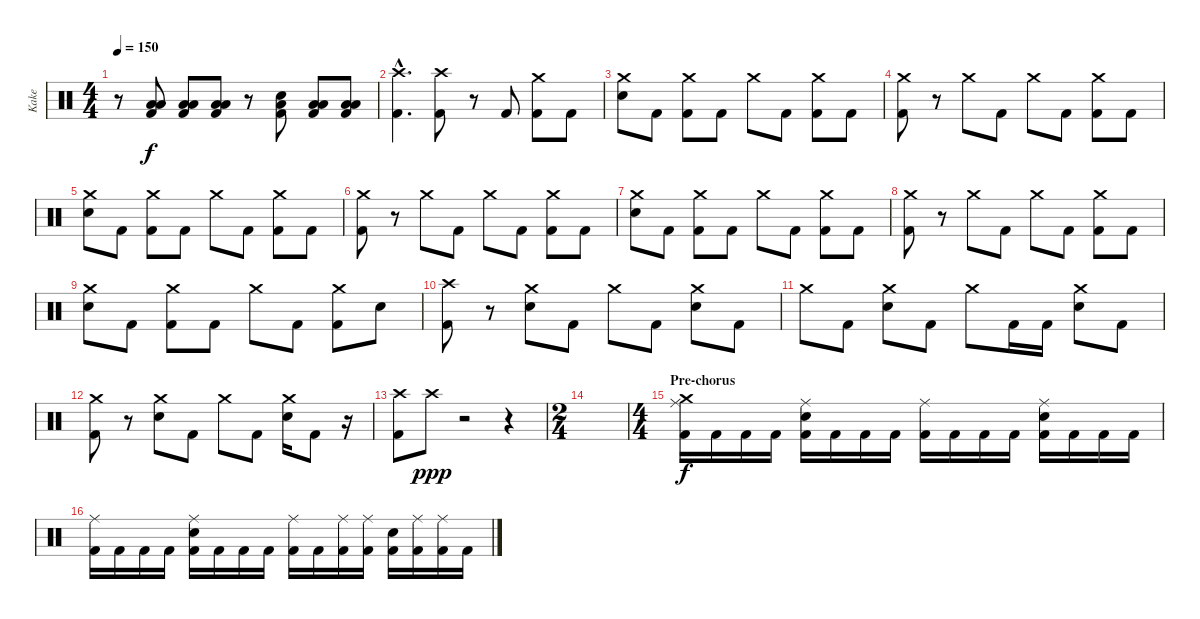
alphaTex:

\track ("Kake" "Kake") {instrument percussion}
\staff {score}
\articulation defaults
\ts (4 4)
\tempo 150
\clef neutral
\ks c
r.8{dy fff} ("Low Tom (hit)" "Low Floor Tom (hit)" "Kick (hit) 2").8{dy f} ("Low Tom (hit)" "Low Floor Tom (hit)" "Kick (hit) 2").8 ("Low Tom (hit)" "Low Floor Tom (hit)" "Kick (hit) 2").8 r.8 ("Electric Snare (hit)" "Low Floor Tom (hit)" "Kick (hit) 2").8 ("Low Tom (hit)" "Low Floor Tom (hit)" "Kick (hit) 2").8 ("Low Tom (hit)" "Low Floor Tom (hit)" "Kick (hit) 2").8 |
("Crash high (hit)"{hac} "Kick (hit) 2"{hac}).4{d} ("Crash high (hit)" "Kick (hit) 2").8 r.8 "Kick (hit) 2".8 ("Crash medium (hit)" "Kick (hit) 2").8 "Kick (hit) 2".8 |
("Crash medium (hit)" "Electric Snare (hit)").8 "Kick (hit) 2".8 ("Crash medium (hit)" "Kick (hit) 2").8 "Kick (hit) 2".8 "Crash medium (hit)".8 "Kick (hit) 2".8 ("Crash medium (hit)" "Kick (hit) 2").8 "Kick (hit) 2".8 |
("Crash medium (hit)" "Kick (hit) 2").8 r.8 "Crash medium (hit)".8 "Kick (hit) 2".8 "Crash medium (hit)".8 "Kick (hit) 2".8 ("Crash medium (hit)" "Kick (hit) 2").8 "Kick (hit) 2".8 |
("Crash medium (hit)" "Electric Snare (hit)").8 "Kick (hit) 2".8 ("Crash medium (hit)" "Kick (hit) 2").8 "Kick (hit) 2".8 "Crash medium (hit)".8 "Kick (hit) 2".8 ("Crash medium (hit)" "Kick (hit) 2").8 "Kick (hit) 2".8 |
("Crash medium (hit)" "Kick (hit) 2").8 r.8 "Crash medium (hit)".8 "Kick (hit) 2".8 "Crash medium (hit)".8 "Kick (hit) 2".8 ("Crash medium (hit)" "Kick (hit) 2").8 "Kick (hit) 2".8 |
("Crash medium (hit)" "Electric Snare (hit)").8 "Kick (hit) 2".8 ("Crash medium (hit)" "Kick (hit) 2").8 "Kick (hit) 2".8 "Crash medium (hit)".8 "Kick (hit) 2".8 ("Crash medium (hit)" "Kick (hit) 2").8 "Kick (hit) 2".8 |
("Crash medium (hit)" "Kick (hit) 2").8 r.8 "Crash medium (hit)".8 "Kick (hit) 2".8 "Crash medium (hit)".8 "Kick (hit) 2".8 ("Crash medium (hit)" "Kick (hit) 2").8 "Kick (hit) 2".8 |
("Crash medium (hit)" "Electric Snare (hit)").8 "Kick (hit) 2".8 ("Crash medium (hit)" "Kick (hit) 2").8 "Kick (hit) 2".8 "Crash medium (hit)".8 "Kick (hit) 2".8 ("Crash medium (hit)" "Kick (hit) 2").8 "Electric Snare (hit)".8 |
("Crash high (hit)" "Kick (hit) 2").8 r.8 ("Crash medium (hit)" "Electric Snare (hit)").8 "Kick (hit) 2".8 "Crash medium (hit)".8 "Kick (hit) 2".8 ("Crash medium (hit)" "Electric Snare (hit)").8 "Kick (hit) 2".8 |
"Crash medium (hit)".8 "Kick (hit) 2".8 ("Crash medium (hit)" "Electric Snare (hit)").8 "Kick (hit) 2".8 "Crash medium (hit)".8 "Kick (hit) 2".16 "Kick (hit) 2".16 ("Crash medium (hit)" "Electric Snare (hit)").8 "Kick (hit) 2".8 |
("Crash medium (hit)" "Kick (hit) 2").8 r.8 ("Crash medium (hit)" "Electric Snare (hit)").8 "Kick (hit) 2".8 "Crash medium (hit)".8 "Kick (hit) 2".8 ("Crash medium (hit)" "Electric Snare (hit)").16 "Kick (hit) 2".8 r.16 |
("Crash high (hit)" "Kick (hit) 2").8 "Crash high (hit)".8{dy ppp} r.2 r.4 |
\ts (2 4)
|
\ts (4 4)
\section ("" "Pre-chorus")
("Ride (middle)" "Crash medium (hit)" "Kick (hit) 2").16{dy f} "Kick (hit) 2".16 "Kick (hit) 2".16 "Kick (hit) 2".16 ("Ride (middle)" "Electric Snare (hit)" "Kick (hit) 2").16 "Kick (hit) 2".16 "Kick (hit) 2".16 "Kick (hit) 2".16 ("Ride (middle)" "Kick (hit) 2").16 "Kick (hit) 2".16 "Kick (hit) 2".16 "Kick (hit) 2".16 ("Ride (middle)" "Electric Snare (hit)" "Kick (hit) 2").16 "Kick (hit) 2".16 "Kick (hit) 2".16 "Kick (hit) 2".16 |
("Ride (middle)" "Kick (hit) 2").16 "Kick (hit) 2".16 "Kick (hit) 2".16 "Kick (hit) 2".16 ("Ride (middle)" "Electric Snare (hit)" "Kick (hit) 2").16 "Kick (hit) 2".16 "Kick (hit) 2".16 "Kick (hit) 2".16 ("Ride (middle)" "Kick (hit) 2").16 "Kick (hit) 2".16 ("Ride (middle)" "Kick (hit) 2").16 ("Ride (middle)" "Kick (hit) 2").16 ("Electric Snare (hit)" "Kick (hit) 2").16 ("Ride (middle)" "Kick (hit) 2").16 ("Ride (middle)" "Kick (hit) 2").16 "Kick (hit) 2".16
